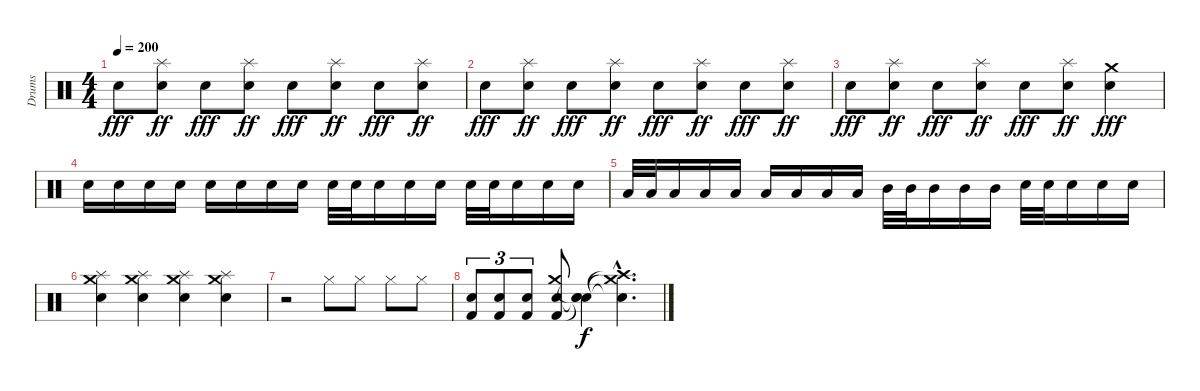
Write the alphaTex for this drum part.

\track ("Drums" "Drums") {instrument percussion}
\staff {score}
\articulation defaults
\ts (4 4)
\tempo 200
\clef neutral
\ks c "Electric Snare (hit)".8{dy fff}
("Snare (hit) 2" "Splash (hit)").8{dy ff} "Electric Snare (hit)".8{dy fff} ("Snare (hit) 2" "Splash (hit)").8{dy ff} "Electric Snare (hit)".8{dy fff} ("Snare (hit) 2" "Splash (hit)").8{dy ff} "Electric Snare (hit)".8{dy fff} ("Snare (hit) 2" "Splash (hit)").8{dy ff} |
"Electric Snare (hit)".8{dy fff} ("Snare (hit) 2" "Splash (hit)").8{dy ff} "Electric Snare (hit)".8{dy fff} ("Snare (hit) 2" "Splash (hit)").8{dy ff} "Electric Snare (hit)".8{dy fff} ("Snare (hit) 2" "Splash (hit)").8{dy ff} "Electric Snare (hit)".8{dy fff} ("Snare (hit) 2" "Splash (hit)").8{dy ff} |
"Electric Snare (hit)".8{dy fff} ("Snare (hit) 2" "Splash (hit)").8{dy ff} "Electric Snare (hit)".8{dy fff} ("Snare (hit) 2" "Splash (hit)").8{dy ff} "Electric Snare (hit)".8{dy fff} ("Snare (hit) 2" "Splash (hit)").8{dy ff} ("Electric Snare (hit)" "Crash medium (hit)").4{dy fff} |
"Electric Snare (hit)".16 "Electric Snare (hit)".16 "Electric Snare (hit)".16 "Electric Snare (hit)".16 "Electric Snare (hit)".16 "Electric Snare (hit)".16 "Electric Snare (hit)".16 "Electric Snare (hit)".16 "Snare (hit) 2".32 "Snare (hit) 2".32 "Snare (hit) 2".16 "Snare (hit) 2".16 "Snare (hit) 2".16 "Snare (hit) 2".32 "Snare (hit) 2".32 "Snare (hit) 2".16 "Snare (hit) 2".16 "Snare (hit) 2".16 |
"Low Tom (hit)".32 "Low Tom (hit)".32 "Low Tom (hit)".16 "Low Tom (hit)".16 "Low Tom (hit)".16 "Low Tom (hit)".16 "Low Tom (hit)".16 "Low Tom (hit)".16 "Low Tom (hit)".16 "Mid Tom (hit)".32 "Mid Tom (hit)".32 "Mid Tom (hit)".16 "Mid Tom (hit)".16 "Mid Tom (hit)".16 "Snare (hit) 2".32 "Snare (hit) 2".32 "Snare (hit) 2".16 "Snare (hit) 2".16 "Snare (hit) 2".16 |
("Crash medium (hit)" "Splash (hit)" "Snare (hit) 2").4 ("Crash medium (hit)" "Splash (hit)" "Snare (hit) 2").4 ("Crash medium (hit)" "Splash (hit)" "Snare (hit) 2").4 ("Crash medium (hit)" "Splash (hit)" "Snare (hit) 2").4 |
r.2 "Hi-Hat (closed)".8 "Hi-Hat (closed)".8 "Hi-Hat (closed)".8 "Hi-Hat (closed)".8 |
("Kick (hit) 2" "Electric Snare (hit)").8{tu (3 2)} ("Kick (hit) 2" "Electric Snare (hit)").8{tu (3 2)} ("Kick (hit) 2" "Electric Snare (hit)").8{tu (3 2)} ("Kick (hit) 2" "Electric Snare (hit)" "Crash medium (hit)").8 ("Snare (hit)"{t} "Snare (hit)"{t} "Snare (hit)"{t}).4{dy f} ("Electric Snare (hit)"{hac t} "Crash medium (hit)"{hac t} "Crash high (hit)"{hac t}).4{d}
